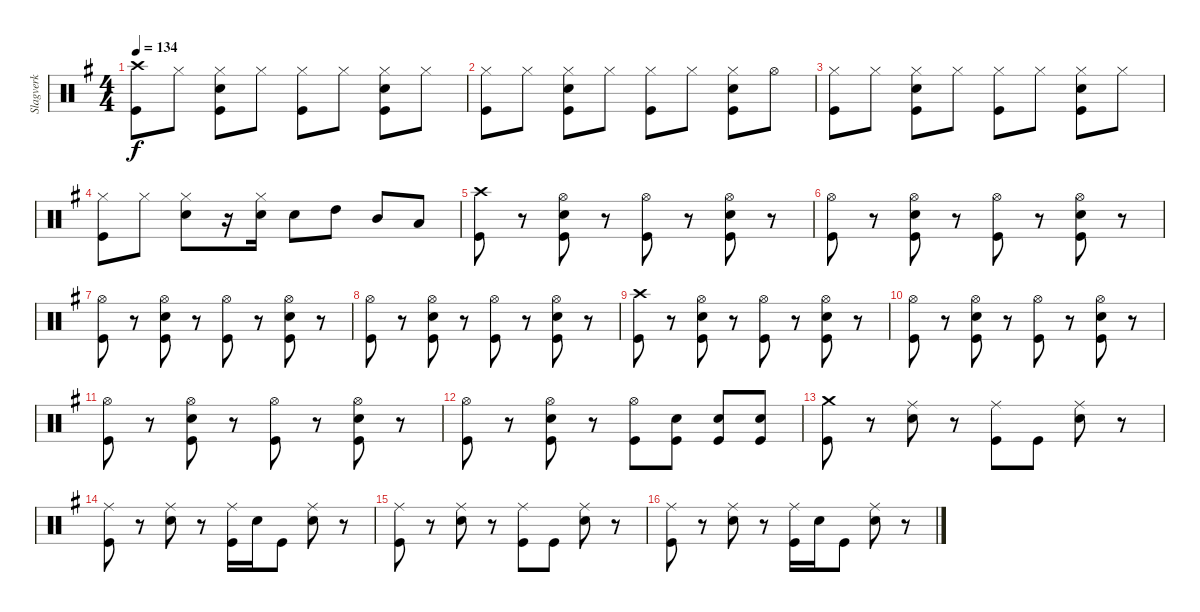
\track ("Slagverk" "Slagverk") {instrument percussion}
\staff {score}
\articulation defaults
\ts (4 4)
\tempo 134
\clef neutral
\ks g
("Crash high (hit)" "Kick (hit)").8{dy f} "Hi-Hat (closed)".8 ("Hi-Hat (closed)" "Electric Snare (hit)" "Kick (hit)").8 "Hi-Hat (closed)".8 ("Hi-Hat (closed)" "Kick (hit)").8 "Hi-Hat (closed)".8 ("Hi-Hat (closed)" "Electric Snare (hit)" "Kick (hit)").8 "Hi-Hat (closed)".8 |
("Hi-Hat (closed)" "Kick (hit)").8 "Hi-Hat (closed)".8 ("Hi-Hat (closed)" "Electric Snare (hit)" "Kick (hit)").8 "Hi-Hat (closed)".8 ("Hi-Hat (closed)" "Kick (hit)").8 "Hi-Hat (closed)".8 ("Hi-Hat (closed)" "Electric Snare (hit)" "Kick (hit)").8 "Hi-Hat (open)".8 |
("Hi-Hat (closed)" "Kick (hit)").8 "Hi-Hat (closed)".8 ("Hi-Hat (closed)" "Electric Snare (hit)" "Kick (hit)").8 "Hi-Hat (closed)".8 ("Hi-Hat (closed)" "Kick (hit)").8 "Hi-Hat (closed)".8 ("Hi-Hat (closed)" "Electric Snare (hit)" "Kick (hit)").8 "Hi-Hat (closed)".8 |
("Hi-Hat (closed)" "Kick (hit)").8 "Hi-Hat (closed)".8 ("Hi-Hat (closed)" "Electric Snare (hit)").8 r.16 ("Hi-Hat (closed)" "Electric Snare (hit)").16 "Electric Snare (hit)".8 "High Tom (hit)".8 "Mid Tom (hit)".8 "Low Tom (hit)".8 |
("Crash high (hit)" "Kick (hit)").8 r.8 ("Hi-Hat (open)" "Electric Snare (hit)" "Kick (hit)").8 r.8 ("Hi-Hat (open)" "Kick (hit)").8 r.8 ("Hi-Hat (open)" "Electric Snare (hit)" "Kick (hit)").8 r.8 |
("Hi-Hat (open)" "Kick (hit)").8 r.8 ("Hi-Hat (open)" "Electric Snare (hit)" "Kick (hit)").8 r.8 ("Hi-Hat (open)" "Kick (hit)").8 r.8 ("Hi-Hat (open)" "Electric Snare (hit)" "Kick (hit)").8 r.8 |
("Hi-Hat (open)" "Kick (hit)").8 r.8 ("Hi-Hat (open)" "Electric Snare (hit)" "Kick (hit)").8 r.8 ("Hi-Hat (open)" "Kick (hit)").8 r.8 ("Hi-Hat (open)" "Electric Snare (hit)" "Kick (hit)").8 r.8 |
("Hi-Hat (open)" "Kick (hit)").8 r.8 ("Hi-Hat (open)" "Electric Snare (hit)" "Kick (hit)").8 r.8 ("Hi-Hat (open)" "Kick (hit)").8 r.8 ("Hi-Hat (open)" "Electric Snare (hit)" "Kick (hit)").8 r.8 |
("Crash high (hit)" "Kick (hit)").8 r.8 ("Hi-Hat (open)" "Electric Snare (hit)" "Kick (hit)").8 r.8 ("Hi-Hat (open)" "Kick (hit)").8 r.8 ("Hi-Hat (open)" "Electric Snare (hit)" "Kick (hit)").8 r.8 |
("Hi-Hat (open)" "Kick (hit)").8 r.8 ("Hi-Hat (open)" "Electric Snare (hit)" "Kick (hit)").8 r.8 ("Hi-Hat (open)" "Kick (hit)").8 r.8 ("Hi-Hat (open)" "Electric Snare (hit)" "Kick (hit)").8 r.8 |
("Hi-Hat (open)" "Kick (hit)").8 r.8 ("Hi-Hat (open)" "Electric Snare (hit)" "Kick (hit)").8 r.8 ("Hi-Hat (open)" "Kick (hit)").8 r.8 ("Hi-Hat (open)" "Electric Snare (hit)" "Kick (hit)").8 r.8 |
("Hi-Hat (open)" "Kick (hit)").8 r.8 ("Hi-Hat (open)" "Electric Snare (hit)" "Kick (hit)").8 r.8 ("Hi-Hat (open)" "Kick (hit)").8 ("Electric Snare (hit)" "Kick (hit)").8 ("Electric Snare (hit)" "Kick (hit)").8 ("Electric Snare (hit)" "Kick (hit)").8 |
("Crash medium (hit)" "Kick (hit)").8 r.8 ("Ride (middle)" "Electric Snare (hit)").8 r.8 ("Ride (middle)" "Kick (hit)").8 "Kick (hit)".8 ("Ride (middle)" "Electric Snare (hit)").8 r.8 |
("Ride (middle)" "Kick (hit)").8 r.8 ("Ride (middle)" "Electric Snare (hit)").8 r.8 ("Ride (middle)" "Kick (hit)").16 "Electric Snare (hit)".16 "Kick (hit)".8 ("Ride (middle)" "Electric Snare (hit)").8 r.8 |
("Ride (middle)" "Kick (hit)").8 r.8 ("Ride (middle)" "Electric Snare (hit)").8 r.8 ("Ride (middle)" "Kick (hit)").8 "Kick (hit)".8 ("Ride (middle)" "Electric Snare (hit)").8 r.8 |
("Ride (middle)" "Kick (hit)").8 r.8 ("Ride (middle)" "Electric Snare (hit)").8 r.8 ("Ride (middle)" "Kick (hit)").16 "Electric Snare (hit)".16 "Kick (hit)".8 ("Ride (middle)" "Electric Snare (hit)").8 r.8
